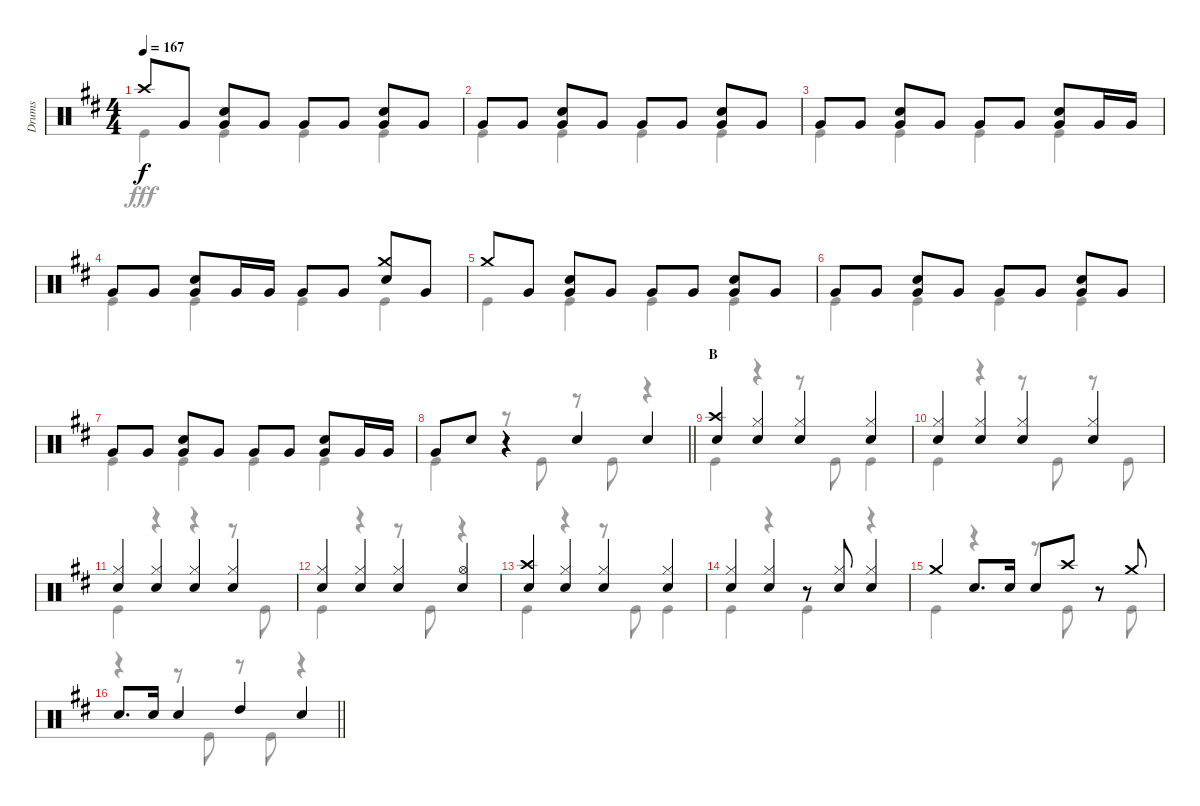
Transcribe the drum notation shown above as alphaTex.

\track ("Drums" "Drums") {instrument percussion}
\staff {score}
\articulation defaults
\voice
\ts (4 4)
\tempo 167
\clef neutral
\ks d "Crash high (hit)".8{dy f} "Very Low Tom (hit)".8
("Snare (hit) 2" "Very Low Tom (hit)").8 "Very Low Tom (hit)".8 "Very Low Tom (hit)".8 "Very Low Tom (hit)".8 ("Snare (hit) 2" "Very Low Tom (hit)").8 "Very Low Tom (hit)".8 |
"Very Low Tom (hit)".8 "Very Low Tom (hit)".8 ("Snare (hit) 2" "Very Low Tom (hit)").8 "Very Low Tom (hit)".8 "Very Low Tom (hit)".8 "Very Low Tom (hit)".8 ("Snare (hit) 2" "Very Low Tom (hit)").8 "Very Low Tom (hit)".8 |
"Very Low Tom (hit)".8 "Very Low Tom (hit)".8 ("Snare (hit) 2" "Very Low Tom (hit)").8 "Very Low Tom (hit)".8 "Very Low Tom (hit)".8 "Very Low Tom (hit)".8 ("Snare (hit) 2" "Very Low Tom (hit)").8 "Very Low Tom (hit)".16 "Very Low Tom (hit)".16 |
"Very Low Tom (hit)".8 "Very Low Tom (hit)".8 ("Snare (hit) 2" "Very Low Tom (hit)").8 "Very Low Tom (hit)".16 "Very Low Tom (hit)".16 "Very Low Tom (hit)".8 "Very Low Tom (hit)".8 ("Crash medium (hit)" "Snare (hit) 2").8 "Very Low Tom (hit)".8 |
"Crash medium (hit)".8 "Very Low Tom (hit)".8 ("Snare (hit) 2" "Very Low Tom (hit)").8 "Very Low Tom (hit)".8 "Very Low Tom (hit)".8 "Very Low Tom (hit)".8 ("Snare (hit) 2" "Very Low Tom (hit)").8 "Very Low Tom (hit)".8 |
"Very Low Tom (hit)".8 "Very Low Tom (hit)".8 ("Snare (hit) 2" "Very Low Tom (hit)").8 "Very Low Tom (hit)".8 "Very Low Tom (hit)".8 "Very Low Tom (hit)".8 ("Snare (hit) 2" "Very Low Tom (hit)").8 "Very Low Tom (hit)".8 |
"Very Low Tom (hit)".8 "Very Low Tom (hit)".8 ("Snare (hit) 2" "Very Low Tom (hit)").8 "Very Low Tom (hit)".8 "Very Low Tom (hit)".8 "Very Low Tom (hit)".8 ("Snare (hit) 2" "Very Low Tom (hit)").8 "Very Low Tom (hit)".16 "Very Low Tom (hit)".16 |
\barLineRight lightlight "Very Low Tom (hit)".8 "Snare (hit) 2".8
r.4 "Snare (hit) 2".4 "Snare (hit) 2".4 |
\section ("" "B")
("Crash high (hit)" "Snare (hit) 2").4 ("Hi-Hat (closed)" "Snare (hit) 2").4 ("Hi-Hat (closed)" "Snare (hit) 2").4 ("Hi-Hat (closed)" "Snare (hit) 2").4 |
("Hi-Hat (closed)" "Snare (hit) 2").4 ("Hi-Hat (closed)" "Snare (hit) 2").4 ("Hi-Hat (closed)" "Snare (hit) 2").4 ("Hi-Hat (closed)" "Snare (hit) 2").4 |
("Hi-Hat (closed)" "Snare (hit) 2").4 ("Hi-Hat (closed)" "Snare (hit) 2").4 ("Hi-Hat (closed)" "Snare (hit) 2").4 ("Hi-Hat (closed)" "Snare (hit) 2").4 |
("Hi-Hat (closed)" "Snare (hit) 2").4 ("Hi-Hat (closed)" "Snare (hit) 2").4 ("Hi-Hat (closed)" "Snare (hit) 2").4 ("Hi-Hat (open)" "Snare (hit) 2").4 |
("Crash high (hit)" "Snare (hit) 2").4 ("Hi-Hat (closed)" "Snare (hit) 2").4 ("Hi-Hat (closed)" "Snare (hit) 2").4 ("Hi-Hat (closed)" "Snare (hit) 2").4 |
("Hi-Hat (closed)" "Snare (hit) 2").4 ("Hi-Hat (closed)" "Snare (hit) 2").4 r.8 ("Hi-Hat (closed)" "Snare (hit) 2").8 ("Hi-Hat (closed)" "Snare (hit) 2").4 |
"Crash medium (hit)".4 "Snare (hit) 2".8{d} "Snare (hit) 2".16 "Snare (hit) 2".8 "Crash high (hit)".8 r.8 "Crash medium (hit)".8 |
\barLineRight lightlight "Snare (hit) 2".8{d} "Snare (hit) 2".16 "Snare (hit) 2".4 "High Tom (hit)".4 "Snare (hit) 2".4
\voice
\clef neutral
\ottava regular
\simile none
\ks d "Kick (hit)".4{dy fff} "Kick (hit)".4 "Kick (hit)".4 "Kick (hit)".4
|
"Kick (hit)".4 "Kick (hit)".4 "Kick (hit)".4 "Kick (hit)".4 |
"Kick (hit)".4 "Kick (hit)".4 "Kick (hit)".4 "Kick (hit)".4 |
"Kick (hit)".4 "Kick (hit)".4 "Kick (hit)".4 "Kick (hit)".4 |
"Kick (hit)".4 "Kick (hit)".4 "Kick (hit)".4 "Kick (hit)".4 |
"Kick (hit)".4 "Kick (hit)".4 "Kick (hit)".4 "Kick (hit)".4 |
"Kick (hit)".4 "Kick (hit)".4 "Kick (hit)".4 "Kick (hit)".4 |
\barLineRight lightlight "Kick (hit)".4
r.8 "Kick (hit)".8 r.8 "Kick (hit)".8 r.4 |
"Kick (hit)".4 r.4 r.8 "Kick (hit)".8 "Kick (hit)".4 |
"Kick (hit)".4 r.4 r.8 "Kick (hit)".8 r.8 "Kick (hit)".8 |
"Kick (hit)".4 r.4 r.4 r.8 "Kick (hit)".8 |
"Kick (hit)".4 r.4 r.8 "Kick (hit)".8 r.4 |
"Kick (hit)".4 r.4 r.8 "Kick (hit)".8 "Kick (hit)".4 |
"Kick (hit)".4 r.4 "Kick (hit)".4 r.4 |
"Kick (hit)".4 r.4 r.8 "Kick (hit)".8 r.8 "Kick (hit)".8 |
\barLineRight lightlight
r.4 r.8 "Kick (hit)".8 r.8 "Kick (hit)".8 r.4
